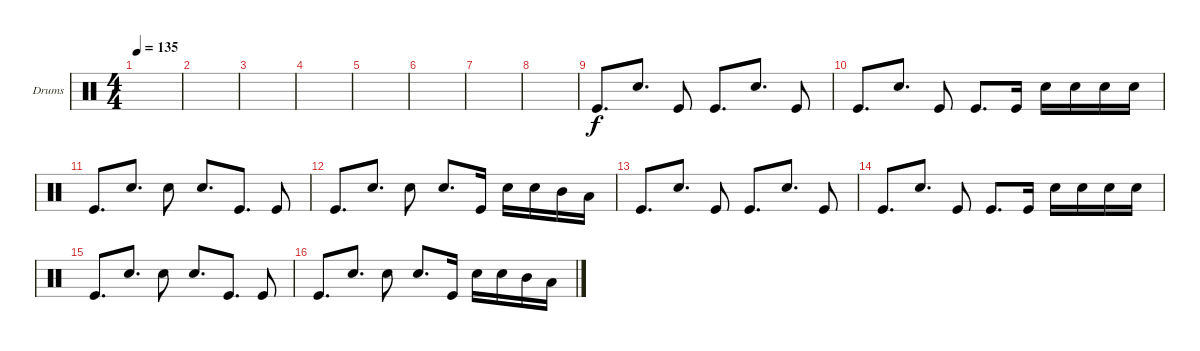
\defaultSystemsLayout 4
\bracketExtendMode groupsimilarinstruments
\firstSystemTrackNameOrientation horizontal
\otherSystemsTrackNameOrientation horizontal
\track ("Matt Helders" "Drums") {instrument percussion}
\staff {score}
\articulation defaults
\ts (4 4)
\tempo 135
\clef neutral
\scale
0.472222
\ks c
|
\scale
0.263889 |
\scale
0.263889 |
\scale
0.333333 |
\scale
0.333333 |
\scale
0.333333 |
\scale
0.333333 |
\scale
0.333333 |
\scale
0.333333 "Kick (hit)".8{d} "Snare (hit) 2".8{d} "Kick (hit)".8 "Kick (hit)".8{d} "Snare (hit) 2".8{d} "Kick (hit)".8 |
\scale
0.333333 "Kick (hit)".8{d} "Snare (hit) 2".8{d} "Kick (hit)".8 "Kick (hit)".8{d} "Kick (hit)".16 "Snare (hit) 2".16 "Snare (hit) 2".16 "Snare (hit) 2".16 "Snare (hit) 2".16 |
\scale
0.333333 "Kick (hit)".8{d} "Snare (hit) 2".8{d} "Snare (hit) 2".8 "Snare (hit) 2".8{d} "Kick (hit)".8{d} "Kick (hit)".8 |
\scale
0.333333 "Kick (hit)".8{d} "Snare (hit) 2".8{d} "Snare (hit) 2".8 "Snare (hit) 2".8{d} "Kick (hit)".16 "Snare (hit) 2".16 "Snare (hit) 2".16 "Mid Tom (hit)".16 "Low Tom (hit)".16 |
\scale
0.333333 "Kick (hit)".8{d} "Snare (hit) 2".8{d} "Kick (hit)".8 "Kick (hit)".8{d} "Snare (hit) 2".8{d} "Kick (hit)".8 |
\scale
0.333333 "Kick (hit)".8{d} "Snare (hit) 2".8{d} "Kick (hit)".8 "Kick (hit)".8{d} "Kick (hit)".16 "Snare (hit) 2".16 "Snare (hit) 2".16 "Snare (hit) 2".16 "Snare (hit) 2".16 |
\scale
0.333333 "Kick (hit)".8{d} "Snare (hit) 2".8{d} "Snare (hit) 2".8 "Snare (hit) 2".8{d} "Kick (hit)".8{d} "Kick (hit)".8 |
\scale
0.333333 "Kick (hit)".8{d} "Snare (hit) 2".8{d} "Snare (hit) 2".8 "Snare (hit) 2".8{d} "Kick (hit)".16 "Snare (hit) 2".16 "Snare (hit) 2".16 "Mid Tom (hit)".16 "Low Tom (hit)".16
